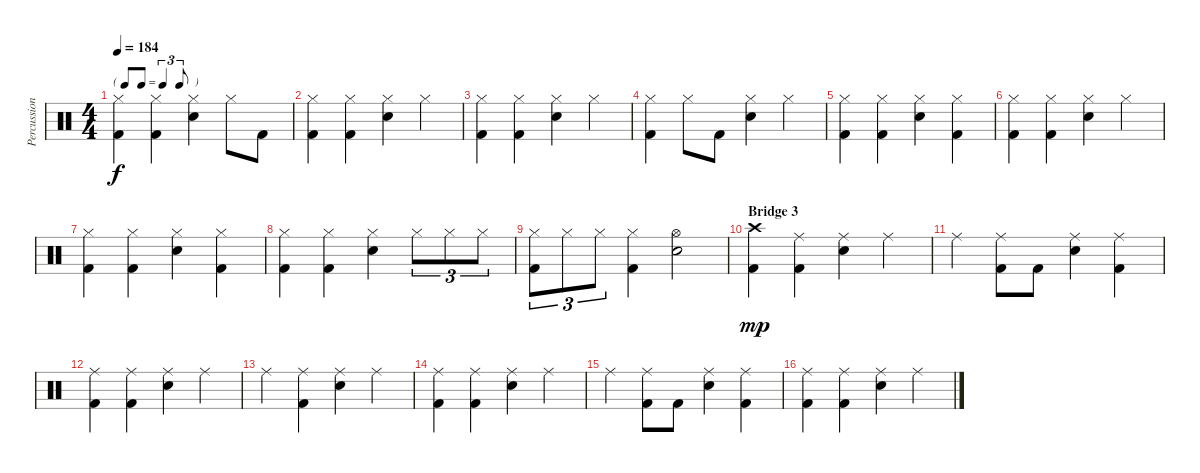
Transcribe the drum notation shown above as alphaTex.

\track ("Percussion" "Percussion") {instrument percussion}
\staff {score}
\articulation defaults
\ts (4 4)
\tf triplet8th
\tempo 184
\clef neutral
\ks c
("Hi-Hat (closed)" "Kick (hit) 2").4{dy f} ("Hi-Hat (closed)" "Kick (hit) 2").4 ("Hi-Hat (closed)" "Electric Snare (hit)").4 "Hi-Hat (closed)".8 "Kick (hit) 2".8 |
("Hi-Hat (closed)" "Kick (hit) 2").4 ("Hi-Hat (closed)" "Kick (hit) 2").4 ("Hi-Hat (closed)" "Electric Snare (hit)").4 "Hi-Hat (closed)".4 |
("Hi-Hat (closed)" "Kick (hit) 2").4 ("Hi-Hat (closed)" "Kick (hit) 2").4 ("Hi-Hat (closed)" "Electric Snare (hit)").4 "Hi-Hat (closed)".4 |
("Hi-Hat (closed)" "Kick (hit) 2").4 "Hi-Hat (closed)".8 "Kick (hit) 2".8 ("Hi-Hat (closed)" "Electric Snare (hit)").4 "Hi-Hat (closed)".4 |
("Hi-Hat (closed)" "Kick (hit) 2").4 ("Hi-Hat (closed)" "Kick (hit) 2").4 ("Hi-Hat (closed)" "Electric Snare (hit)").4 ("Hi-Hat (closed)" "Kick (hit) 2").4 |
("Hi-Hat (closed)" "Kick (hit) 2").4 ("Hi-Hat (closed)" "Kick (hit) 2").4 ("Hi-Hat (closed)" "Electric Snare (hit)").4 "Hi-Hat (closed)".4 |
("Hi-Hat (closed)" "Kick (hit) 2").4 ("Hi-Hat (closed)" "Kick (hit) 2").4 ("Hi-Hat (closed)" "Electric Snare (hit)").4 ("Hi-Hat (closed)" "Kick (hit) 2").4 |
("Hi-Hat (closed)" "Kick (hit) 2").4 ("Hi-Hat (closed)" "Kick (hit) 2").4 ("Hi-Hat (closed)" "Electric Snare (hit)").4 "Hi-Hat (closed)".8{tu (3 2)} "Hi-Hat (closed)".8{tu (3 2)} "Hi-Hat (closed)".8{tu (3 2)} |
("Hi-Hat (closed)" "Kick (hit) 2").8{tu (3 2)} "Hi-Hat (closed)".8{tu (3 2)} "Hi-Hat (closed)".8{tu (3 2)} ("Hi-Hat (closed)" "Kick (hit) 2").4 ("Hi-Hat (open)" "Electric Snare (hit)").2 |
\section ("" "Bridge 3")
("Crash high (hit)" "Kick (hit) 2").4{dy mp} ("Ride (middle)" "Kick (hit) 2").4 ("Ride (middle)" "Electric Snare (hit)").4 "Ride (middle)".4 |
"Ride (middle)".4 ("Ride (middle)" "Kick (hit) 2").8 "Kick (hit) 2".8 ("Ride (middle)" "Electric Snare (hit)").4 ("Ride (middle)" "Kick (hit) 2").4 |
("Ride (middle)" "Kick (hit) 2").4 ("Ride (middle)" "Kick (hit) 2").4 ("Ride (middle)" "Electric Snare (hit)").4 "Ride (middle)".4 |
"Ride (middle)".4 ("Ride (middle)" "Kick (hit) 2").4 ("Ride (middle)" "Electric Snare (hit)").4 "Ride (middle)".4 |
("Ride (middle)" "Kick (hit) 2").4 ("Ride (middle)" "Kick (hit) 2").4 ("Ride (middle)" "Electric Snare (hit)").4 "Ride (middle)".4 |
"Ride (middle)".4 ("Ride (middle)" "Kick (hit) 2").8 "Kick (hit) 2".8 ("Ride (middle)" "Electric Snare (hit)").4 ("Ride (middle)" "Kick (hit) 2").4 |
("Ride (middle)" "Kick (hit) 2").4 ("Ride (middle)" "Kick (hit) 2").4 ("Ride (middle)" "Electric Snare (hit)").4 "Ride (middle)".4
